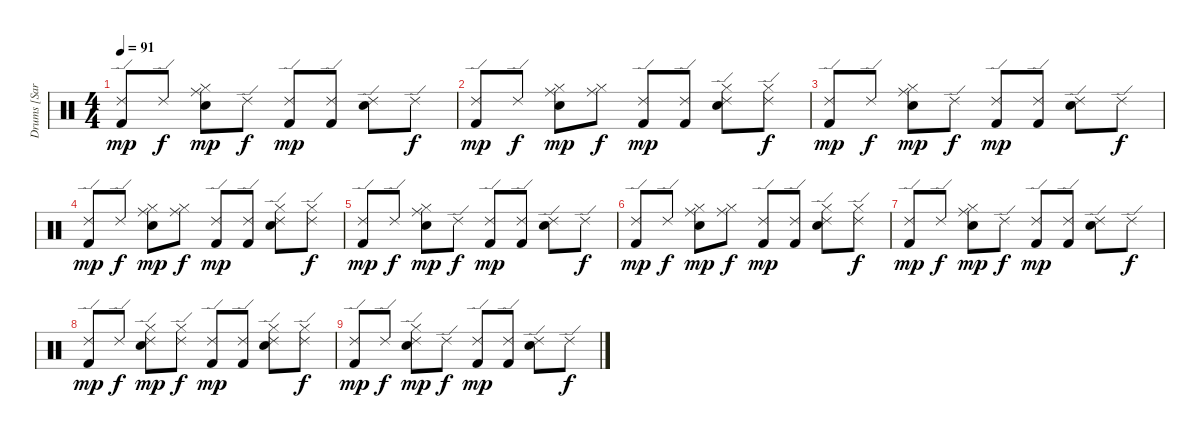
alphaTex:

\track ("Drums [Sara Lee Lucas]" "Drums [Sar") {instrument percussion}
\staff {score}
\articulation defaults
\ts (4 4)
\tempo 91
\clef neutral
\ks c
("Ride (edge) 2" "Kick (hit) 2").8{dy mp} "Ride (edge) 2".8{dy f} ("Ride (middle)" "Hi-Hat (closed)" "Snare (hit) 2").8{dy mp} "Ride (edge) 2".8{dy f} ("Ride (edge) 2" "Kick (hit) 2").8{dy mp} ("Ride (edge) 2" "Kick (hit) 2").8 ("Ride (edge) 2" "Snare (hit) 2").8 "Ride (edge) 2".8{dy f} |
("Ride (edge) 2" "Kick (hit) 2").8{dy mp} "Ride (edge) 2".8{dy f} ("Ride (middle)" "Hi-Hat (closed)" "Snare (hit) 2").8{dy mp} ("Ride (middle)" "Hi-Hat (closed)").8{dy f} ("Ride (edge) 2" "Kick (hit) 2").8{dy mp} ("Ride (edge) 2" "Kick (hit) 2").8 ("Ride (edge) 2" "Hi-Hat (closed)" "Snare (hit) 2").8 ("Ride (edge) 2" "Hi-Hat (closed)").8{dy f} |
("Ride (edge) 2" "Kick (hit) 2").8{dy mp} "Ride (edge) 2".8{dy f} ("Ride (middle)" "Hi-Hat (closed)" "Snare (hit) 2").8{dy mp} "Ride (edge) 2".8{dy f} ("Ride (edge) 2" "Kick (hit) 2").8{dy mp} ("Ride (edge) 2" "Kick (hit) 2").8 ("Ride (edge) 2" "Snare (hit) 2").8 "Ride (edge) 2".8{dy f} |
("Ride (edge) 2" "Kick (hit) 2").8{dy mp} "Ride (edge) 2".8{dy f} ("Ride (middle)" "Hi-Hat (closed)" "Snare (hit) 2").8{dy mp} ("Ride (middle)" "Hi-Hat (closed)").8{dy f} ("Ride (edge) 2" "Kick (hit) 2").8{dy mp} ("Ride (edge) 2" "Kick (hit) 2").8 ("Ride (edge) 2" "Hi-Hat (closed)" "Snare (hit) 2").8 ("Ride (edge) 2" "Hi-Hat (closed)").8{dy f} |
("Ride (edge) 2" "Kick (hit) 2").8{dy mp} "Ride (edge) 2".8{dy f} ("Ride (middle)" "Hi-Hat (closed)" "Snare (hit) 2").8{dy mp} "Ride (edge) 2".8{dy f} ("Ride (edge) 2" "Kick (hit) 2").8{dy mp} ("Ride (edge) 2" "Kick (hit) 2").8 ("Ride (edge) 2" "Snare (hit) 2").8 "Ride (edge) 2".8{dy f} |
("Ride (edge) 2" "Kick (hit) 2").8{dy mp} "Ride (edge) 2".8{dy f} ("Ride (middle)" "Hi-Hat (closed)" "Snare (hit) 2").8{dy mp} ("Ride (middle)" "Hi-Hat (closed)").8{dy f} ("Ride (edge) 2" "Kick (hit) 2").8{dy mp} ("Ride (edge) 2" "Kick (hit) 2").8 ("Ride (edge) 2" "Hi-Hat (closed)" "Snare (hit) 2").8 ("Ride (edge) 2" "Hi-Hat (closed)").8{dy f} |
("Ride (edge) 2" "Kick (hit) 2").8{dy mp} "Ride (edge) 2".8{dy f} ("Ride (middle)" "Hi-Hat (closed)" "Snare (hit) 2").8{dy mp} "Ride (edge) 2".8{dy f} ("Ride (edge) 2" "Kick (hit) 2").8{dy mp} ("Ride (edge) 2" "Kick (hit) 2").8 ("Ride (edge) 2" "Snare (hit) 2").8 "Ride (edge) 2".8{dy f} |
("Ride (edge) 2" "Kick (hit) 2").8{dy mp} "Ride (edge) 2".8{dy f} ("Ride (edge) 2" "Hi-Hat (closed)" "Snare (hit) 2").8{dy mp} ("Ride (edge) 2" "Hi-Hat (closed)").8{dy f} ("Ride (edge) 2" "Kick (hit) 2").8{dy mp} ("Ride (edge) 2" "Kick (hit) 2").8 ("Ride (edge) 2" "Hi-Hat (closed)" "Snare (hit) 2").8 ("Ride (edge) 2" "Hi-Hat (closed)").8{dy f} |
("Ride (edge) 2" "Kick (hit) 2").8{dy mp} "Ride (edge) 2".8{dy f} ("Ride (edge) 2" "Hi-Hat (closed)" "Snare (hit) 2").8{dy mp} "Ride (edge) 2".8{dy f} ("Ride (edge) 2" "Kick (hit) 2").8{dy mp} ("Ride (edge) 2" "Kick (hit) 2").8 ("Ride (edge) 2" "Snare (hit) 2").8 "Ride (edge) 2".8{dy f}
